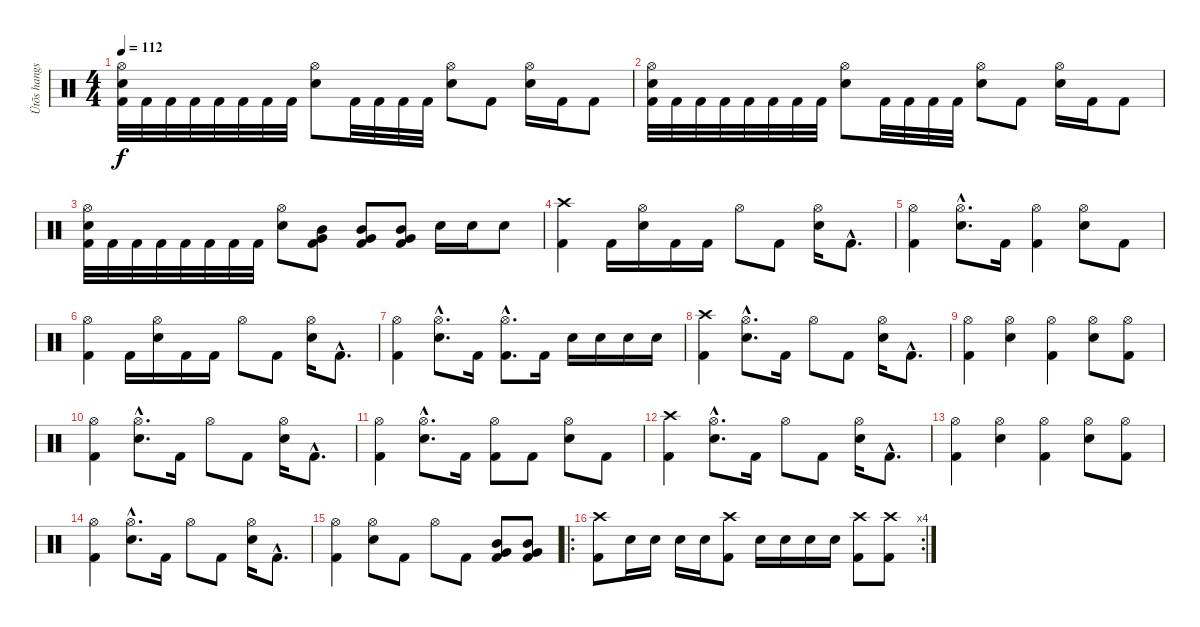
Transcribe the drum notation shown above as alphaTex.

\track ("Ütõs hangszer" "Ütõs hangs") {instrument percussion}
\staff {score}
\articulation defaults
\ts (4 4)
\tempo 112
\clef neutral
\ks c
("Hi-Hat (open)" "Electric Snare (hit)" "Kick (hit) 2").32{dy f} "Kick (hit) 2".32 "Kick (hit) 2".32 "Kick (hit) 2".32 "Kick (hit) 2".32 "Kick (hit) 2".32 "Kick (hit) 2".32 "Kick (hit) 2".32 ("Hi-Hat (open)" "Electric Snare (hit)").8 "Kick (hit) 2".32 "Kick (hit) 2".32 "Kick (hit) 2".32 "Kick (hit) 2".32 ("Hi-Hat (open)" "Electric Snare (hit)").8 "Kick (hit) 2".8 ("Hi-Hat (open)" "Electric Snare (hit)").16 "Kick (hit) 2".16 "Kick (hit) 2".8 |
("Hi-Hat (open)" "Electric Snare (hit)" "Kick (hit) 2").32 "Kick (hit) 2".32 "Kick (hit) 2".32 "Kick (hit) 2".32 "Kick (hit) 2".32 "Kick (hit) 2".32 "Kick (hit) 2".32 "Kick (hit) 2".32 ("Hi-Hat (open)" "Electric Snare (hit)").8 "Kick (hit) 2".32 "Kick (hit) 2".32 "Kick (hit) 2".32 "Kick (hit) 2".32 ("Hi-Hat (open)" "Electric Snare (hit)").8 "Kick (hit) 2".8 ("Hi-Hat (open)" "Electric Snare (hit)").16 "Kick (hit) 2".16 "Kick (hit) 2".8 |
("Hi-Hat (open)" "Electric Snare (hit)" "Kick (hit) 2").32 "Kick (hit) 2".32 "Kick (hit) 2".32 "Kick (hit) 2".32 "Kick (hit) 2".32 "Kick (hit) 2".32 "Kick (hit) 2".32 "Kick (hit) 2".32 ("Hi-Hat (open)" "Electric Snare (hit)").8 ("Mid Tom (hit)" "Very Low Tom (hit)" "Kick (hit) 2").8 ("Mid Tom (hit)" "Very Low Tom (hit)" "Kick (hit) 2").8 ("Mid Tom (hit)" "Very Low Tom (hit)" "Kick (hit) 2").8 "Electric Snare (hit)".16 "Electric Snare (hit)".16 "Electric Snare (hit)".8 |
("Crash high (hit)" "Kick (hit) 2").4 "Kick (hit) 2".16 ("Hi-Hat (open)" "Electric Snare (hit)").16 "Kick (hit) 2".16 "Kick (hit) 2".16 "Hi-Hat (open)".8 "Kick (hit) 2".8 ("Hi-Hat (open)" "Electric Snare (hit)").16 "Kick (hit) 2"{hac}.8{d} |
("Hi-Hat (open)" "Kick (hit) 2").4 ("Hi-Hat (open)"{hac} "Electric Snare (hit)"{hac}).8{d} "Kick (hit) 2".16 ("Hi-Hat (open)" "Kick (hit) 2").4 ("Hi-Hat (open)" "Electric Snare (hit)").8 "Kick (hit) 2".8 |
("Hi-Hat (open)" "Kick (hit) 2").4 "Kick (hit) 2".16 ("Hi-Hat (open)" "Electric Snare (hit)").16 "Kick (hit) 2".16 "Kick (hit) 2".16 "Hi-Hat (open)".8 "Kick (hit) 2".8 ("Hi-Hat (open)" "Electric Snare (hit)").16 "Kick (hit) 2"{hac}.8{d} |
("Hi-Hat (open)" "Kick (hit) 2").4 ("Hi-Hat (open)"{hac} "Electric Snare (hit)"{hac}).8{d} "Kick (hit) 2".16 ("Hi-Hat (open)"{hac} "Kick (hit) 2"{hac}).8{d} "Kick (hit) 2".16 "Electric Snare (hit)".16 "Electric Snare (hit)".16 "Electric Snare (hit)".16 "Electric Snare (hit)".16 |
("Crash high (hit)" "Kick (hit) 2").4 ("Hi-Hat (open)"{hac} "Electric Snare (hit)"{hac}).8{d} "Kick (hit) 2".16 "Hi-Hat (open)".8 "Kick (hit) 2".8 ("Hi-Hat (open)" "Electric Snare (hit)").16 "Kick (hit) 2"{hac}.8{d} |
("Hi-Hat (open)" "Kick (hit) 2").4 ("Hi-Hat (open)" "Electric Snare (hit)").4 ("Hi-Hat (open)" "Kick (hit) 2").4 ("Hi-Hat (open)" "Electric Snare (hit)").8 ("Hi-Hat (open)" "Kick (hit) 2").8 |
("Hi-Hat (open)" "Kick (hit) 2").4 ("Hi-Hat (open)"{hac} "Electric Snare (hit)"{hac}).8{d} "Kick (hit) 2".16 "Hi-Hat (open)".8 "Kick (hit) 2".8 ("Hi-Hat (open)" "Electric Snare (hit)").16 "Kick (hit) 2"{hac}.8{d} |
("Hi-Hat (open)" "Kick (hit) 2").4 ("Hi-Hat (open)"{hac} "Electric Snare (hit)"{hac}).8{d} "Kick (hit) 2".16 ("Hi-Hat (open)" "Kick (hit) 2").8 "Kick (hit) 2".8 ("Hi-Hat (open)" "Electric Snare (hit)").8 "Kick (hit) 2".8 |
("Crash high (hit)" "Kick (hit) 2").4 ("Hi-Hat (open)"{hac} "Electric Snare (hit)"{hac}).8{d} "Kick (hit) 2".16 "Hi-Hat (open)".8 "Kick (hit) 2".8 ("Hi-Hat (open)" "Electric Snare (hit)").16 "Kick (hit) 2"{hac}.8{d} |
("Hi-Hat (open)" "Kick (hit) 2").4 ("Hi-Hat (open)" "Electric Snare (hit)").4 ("Hi-Hat (open)" "Kick (hit) 2").4 ("Hi-Hat (open)" "Electric Snare (hit)").8 ("Hi-Hat (open)" "Kick (hit) 2").8 |
("Hi-Hat (open)" "Kick (hit) 2").4 ("Hi-Hat (open)"{hac} "Electric Snare (hit)"{hac}).8{d} "Kick (hit) 2".16 "Hi-Hat (open)".8 "Kick (hit) 2".8 ("Hi-Hat (open)" "Electric Snare (hit)").16 "Kick (hit) 2"{hac}.8{d} |
("Hi-Hat (open)" "Kick (hit) 2").4 ("Hi-Hat (open)" "Electric Snare (hit)").8 "Kick (hit) 2".8 "Hi-Hat (open)".8 "Kick (hit) 2".8 ("Mid Tom (hit)" "Very Low Tom (hit)" "Kick (hit) 2").8 ("Mid Tom (hit)" "Very Low Tom (hit)" "Kick (hit) 2").8 |
\ro
\rc 4
("Crash high (hit)" "Kick (hit) 2").8 "Electric Snare (hit)".16 "Electric Snare (hit)".16 "Electric Snare (hit)".16 "Electric Snare (hit)".16 ("Crash high (hit)" "Kick (hit) 2").8 "Electric Snare (hit)".16 "Electric Snare (hit)".16 "Electric Snare (hit)".16 "Electric Snare (hit)".16 ("Crash high (hit)" "Kick (hit) 2").8 ("Crash high (hit)" "Kick (hit) 2").8
